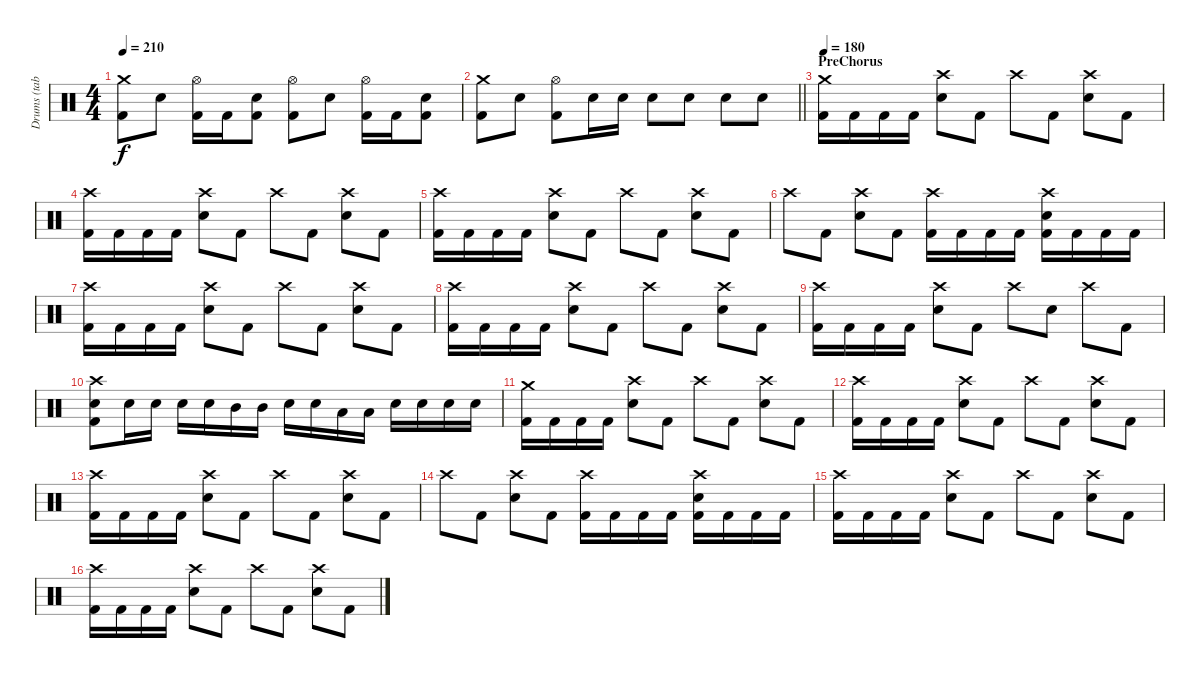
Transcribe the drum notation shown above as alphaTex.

\track ("Drums (tabbed by bassman213293)" "Drums (tab") {instrument percussion}
\staff {score}
\articulation defaults
\ts (4 4)
\tempo 210
\clef neutral
\ks c
("Crash medium (hit)" "Kick (hit) 2").8{dy f} "Electric Snare (hit)".8 ("Hi-Hat (open)" "Kick (hit) 2").16 "Kick (hit) 2".16 ("Electric Snare (hit)" "Kick (hit) 2").8 ("Hi-Hat (open)" "Kick (hit) 2").8 "Electric Snare (hit)".8 ("Hi-Hat (open)" "Kick (hit) 2").16 "Kick (hit) 2".16 ("Electric Snare (hit)" "Kick (hit) 2").8 |
\barLineRight lightlight
("Crash medium (hit)" "Kick (hit) 2").8 "Electric Snare (hit)".8 ("Hi-Hat (open)" "Kick (hit) 2").8 "Electric Snare (hit)".16 "Electric Snare (hit)".16 "Electric Snare (hit)".8 "Electric Snare (hit)".8 "Electric Snare (hit)".8 "Electric Snare (hit)".8 |
\section ("" "PreChorus")
\tempo 180
("Crash medium (hit)" "Kick (hit) 2").16 "Kick (hit) 2".16 "Kick (hit) 2".16 "Kick (hit) 2".16 ("Crash high (hit)" "Electric Snare (hit)").8 "Kick (hit) 2".8 "Crash high (hit)".8 "Kick (hit) 2".8 ("Crash high (hit)" "Electric Snare (hit)").8 "Kick (hit) 2".8 |
("Crash high (hit)" "Kick (hit) 2").16 "Kick (hit) 2".16 "Kick (hit) 2".16 "Kick (hit) 2".16 ("Crash high (hit)" "Electric Snare (hit)").8 "Kick (hit) 2".8 "Crash high (hit)".8 "Kick (hit) 2".8 ("Crash high (hit)" "Electric Snare (hit)").8 "Kick (hit) 2".8 |
("Crash high (hit)" "Kick (hit) 2").16 "Kick (hit) 2".16 "Kick (hit) 2".16 "Kick (hit) 2".16 ("Crash high (hit)" "Electric Snare (hit)").8 "Kick (hit) 2".8 "Crash high (hit)".8 "Kick (hit) 2".8 ("Crash high (hit)" "Electric Snare (hit)").8 "Kick (hit) 2".8 |
"Crash high (hit)".8 "Kick (hit) 2".8 ("Crash high (hit)" "Electric Snare (hit)").8 "Kick (hit) 2".8 ("Crash high (hit)" "Kick (hit) 2").16 "Kick (hit) 2".16 "Kick (hit) 2".16 "Kick (hit) 2".16 ("Crash high (hit)" "Electric Snare (hit)" "Kick (hit) 2").16 "Kick (hit) 2".16 "Kick (hit) 2".16 "Kick (hit) 2".16 |
("Crash high (hit)" "Kick (hit) 2").16 "Kick (hit) 2".16 "Kick (hit) 2".16 "Kick (hit) 2".16 ("Crash high (hit)" "Electric Snare (hit)").8 "Kick (hit) 2".8 "Crash high (hit)".8 "Kick (hit) 2".8 ("Crash high (hit)" "Electric Snare (hit)").8 "Kick (hit) 2".8 |
("Crash high (hit)" "Kick (hit) 2").16 "Kick (hit) 2".16 "Kick (hit) 2".16 "Kick (hit) 2".16 ("Crash high (hit)" "Electric Snare (hit)").8 "Kick (hit) 2".8 "Crash high (hit)".8 "Kick (hit) 2".8 ("Crash high (hit)" "Electric Snare (hit)").8 "Kick (hit) 2".8 |
("Crash high (hit)" "Kick (hit) 2").16 "Kick (hit) 2".16 "Kick (hit) 2".16 "Kick (hit) 2".16 ("Crash high (hit)" "Electric Snare (hit)").8 "Kick (hit) 2".8 "Crash high (hit)".8 "Electric Snare (hit)".8 "Crash high (hit)".8 "Kick (hit) 2".8 |
("Crash high (hit)" "Electric Snare (hit)" "Kick (hit) 2").8 "Electric Snare (hit)".16 "Electric Snare (hit)".16 "Electric Snare (hit)".16 "Electric Snare (hit)".16 "Mid Tom (hit)".16 "Mid Tom (hit)".16 "Electric Snare (hit)".16 "Electric Snare (hit)".16 "Low Tom (hit)".16 "Low Tom (hit)".16 "Electric Snare (hit)".16 "Electric Snare (hit)".16 "Electric Snare (hit)".16 "Electric Snare (hit)".16 |
("Crash medium (hit)" "Kick (hit) 2").16 "Kick (hit) 2".16 "Kick (hit) 2".16 "Kick (hit) 2".16 ("Crash high (hit)" "Electric Snare (hit)").8 "Kick (hit) 2".8 "Crash high (hit)".8 "Kick (hit) 2".8 ("Crash high (hit)" "Electric Snare (hit)").8 "Kick (hit) 2".8 |
("Crash high (hit)" "Kick (hit) 2").16 "Kick (hit) 2".16 "Kick (hit) 2".16 "Kick (hit) 2".16 ("Crash high (hit)" "Electric Snare (hit)").8 "Kick (hit) 2".8 "Crash high (hit)".8 "Kick (hit) 2".8 ("Crash high (hit)" "Electric Snare (hit)").8 "Kick (hit) 2".8 |
("Crash high (hit)" "Kick (hit) 2").16 "Kick (hit) 2".16 "Kick (hit) 2".16 "Kick (hit) 2".16 ("Crash high (hit)" "Electric Snare (hit)").8 "Kick (hit) 2".8 "Crash high (hit)".8 "Kick (hit) 2".8 ("Crash high (hit)" "Electric Snare (hit)").8 "Kick (hit) 2".8 |
"Crash high (hit)".8 "Kick (hit) 2".8 ("Crash high (hit)" "Electric Snare (hit)").8 "Kick (hit) 2".8 ("Crash high (hit)" "Kick (hit) 2").16 "Kick (hit) 2".16 "Kick (hit) 2".16 "Kick (hit) 2".16 ("Crash high (hit)" "Electric Snare (hit)" "Kick (hit) 2").16 "Kick (hit) 2".16 "Kick (hit) 2".16 "Kick (hit) 2".16 |
("Crash high (hit)" "Kick (hit) 2").16 "Kick (hit) 2".16 "Kick (hit) 2".16 "Kick (hit) 2".16 ("Crash high (hit)" "Electric Snare (hit)").8 "Kick (hit) 2".8 "Crash high (hit)".8 "Kick (hit) 2".8 ("Crash high (hit)" "Electric Snare (hit)").8 "Kick (hit) 2".8 |
("Crash high (hit)" "Kick (hit) 2").16 "Kick (hit) 2".16 "Kick (hit) 2".16 "Kick (hit) 2".16 ("Crash high (hit)" "Electric Snare (hit)").8 "Kick (hit) 2".8 "Crash high (hit)".8 "Kick (hit) 2".8 ("Crash high (hit)" "Electric Snare (hit)").8 "Kick (hit) 2".8
